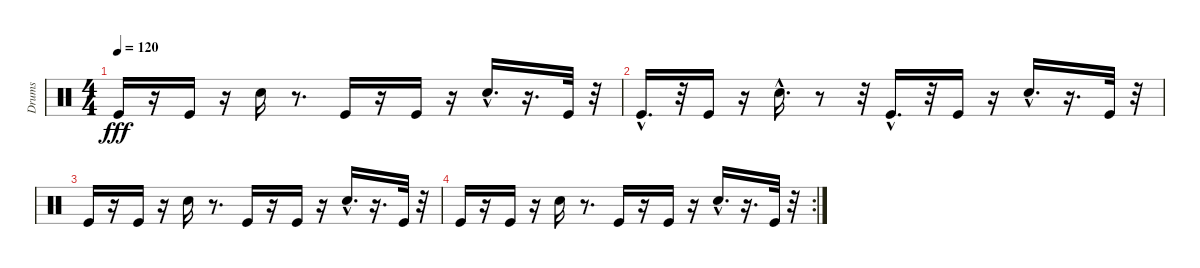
\track ("Drums" "Drums") {instrument percussion}
\staff {score}
\articulation defaults
\ts (4 4)
\tempo 120
\clef neutral
\ks c "Kick (hit)".16{dy fff}
r.16 "Kick (hit)".16 r.16 "Electric Snare (hit)".16 r.8{d} "Kick (hit)".16 r.16 "Kick (hit)".16 r.16 "Electric Snare (hit)"{hac}.16{d} r.16{d} "Kick (hit)".32 r.32 |
"Kick (hit)"{hac}.16{d} r.32 "Kick (hit)".16 r.16 "Electric Snare (hit)"{hac}.16{d} r.8 r.32 "Kick (hit)"{hac}.16{d} r.32 "Kick (hit)".16 r.16 "Electric Snare (hit)"{hac}.16{d} r.16{d} "Kick (hit)".32 r.32 |
"Kick (hit)".16 r.16 "Kick (hit)".16 r.16 "Electric Snare (hit)".16 r.8{d} "Kick (hit)".16 r.16 "Kick (hit)".16 r.16 "Electric Snare (hit)"{hac}.16{d} r.16{d} "Kick (hit)".32 r.32 |
\rc 2 "Kick (hit)".16
r.16 "Kick (hit)".16 r.16 "Electric Snare (hit)".16 r.8{d} "Kick (hit)".16 r.16 "Kick (hit)".16 r.16 "Electric Snare (hit)"{hac}.16{d} r.16{d} "Kick (hit)".32 r.32
